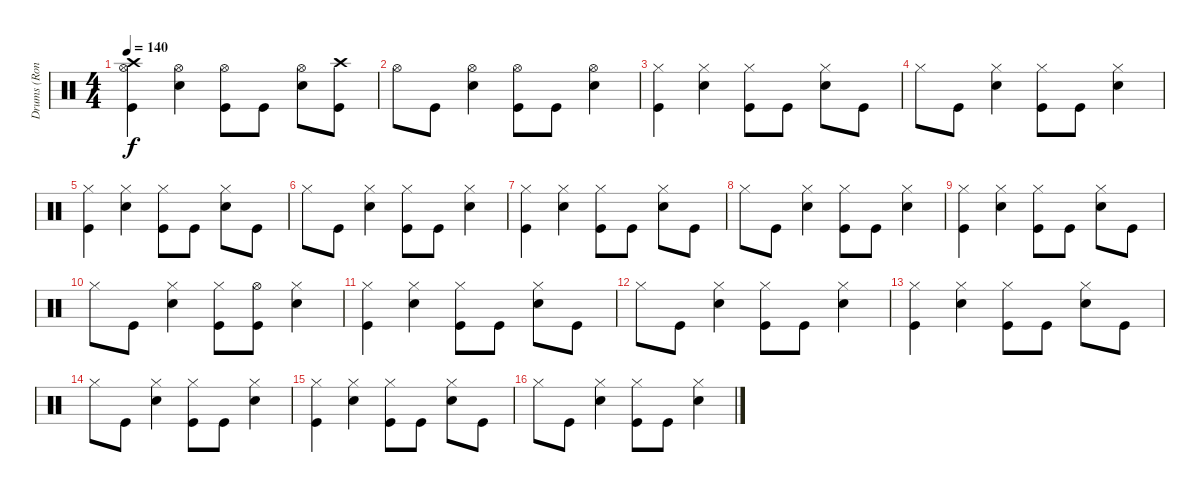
\track ("Drums (Ron Welty)" "Drums (Ron") {instrument percussion}
\staff {score}
\articulation defaults
\ts (4 4)
\tempo 140
\clef neutral
\ks c
("Kick (hit)" "Crash high (hit)" "Hi-Hat (open)").4{dy f} ("Snare (hit) 2" "Hi-Hat (open)").4 ("Kick (hit)" "Hi-Hat (open)").8 "Kick (hit)".8 ("Snare (hit) 2" "Hi-Hat (open)").8 ("Kick (hit)" "Crash high (hit)").8 |
"Hi-Hat (open)".8 "Kick (hit)".8 ("Snare (hit) 2" "Hi-Hat (open)").4 ("Kick (hit)" "Hi-Hat (open)").8 "Kick (hit)".8 ("Snare (hit) 2" "Hi-Hat (open)").4 |
("Kick (hit)" "Hi-Hat (closed)").4 ("Snare (hit) 2" "Hi-Hat (closed)").4 ("Kick (hit)" "Hi-Hat (closed)").8 "Kick (hit)".8 ("Snare (hit) 2" "Hi-Hat (closed)").8 "Kick (hit)".8 |
"Hi-Hat (closed)".8 "Kick (hit)".8 ("Snare (hit) 2" "Hi-Hat (closed)").4 ("Kick (hit)" "Hi-Hat (closed)").8 "Kick (hit)".8 ("Snare (hit) 2" "Hi-Hat (closed)").4 |
("Kick (hit)" "Hi-Hat (closed)").4 ("Snare (hit) 2" "Hi-Hat (closed)").4 ("Kick (hit)" "Hi-Hat (closed)").8 "Kick (hit)".8 ("Snare (hit) 2" "Hi-Hat (closed)").8 "Kick (hit)".8 |
"Hi-Hat (closed)".8 "Kick (hit)".8 ("Snare (hit) 2" "Hi-Hat (closed)").4 ("Kick (hit)" "Hi-Hat (closed)").8 "Kick (hit)".8 ("Snare (hit) 2" "Hi-Hat (closed)").4 |
("Kick (hit)" "Hi-Hat (closed)").4 ("Snare (hit) 2" "Hi-Hat (closed)").4 ("Kick (hit)" "Hi-Hat (closed)").8 "Kick (hit)".8 ("Snare (hit) 2" "Hi-Hat (closed)").8 "Kick (hit)".8 |
"Hi-Hat (closed)".8 "Kick (hit)".8 ("Snare (hit) 2" "Hi-Hat (closed)").4 ("Kick (hit)" "Hi-Hat (closed)").8 "Kick (hit)".8 ("Snare (hit) 2" "Hi-Hat (closed)").4 |
("Kick (hit)" "Hi-Hat (closed)").4 ("Snare (hit) 2" "Hi-Hat (closed)").4 ("Kick (hit)" "Hi-Hat (closed)").8 "Kick (hit)".8 ("Snare (hit) 2" "Hi-Hat (closed)").8 "Kick (hit)".8 |
"Hi-Hat (closed)".8 "Kick (hit)".8 ("Snare (hit) 2" "Hi-Hat (closed)").4 ("Kick (hit)" "Hi-Hat (closed)").8 ("Kick (hit)" "Hi-Hat (open)").8 ("Snare (hit) 2" "Hi-Hat (closed)").4 |
("Kick (hit)" "Hi-Hat (closed)").4 ("Snare (hit) 2" "Hi-Hat (closed)").4 ("Kick (hit)" "Hi-Hat (closed)").8 "Kick (hit)".8 ("Snare (hit) 2" "Hi-Hat (closed)").8 "Kick (hit)".8 |
"Hi-Hat (closed)".8 "Kick (hit)".8 ("Snare (hit) 2" "Hi-Hat (closed)").4 ("Kick (hit)" "Hi-Hat (closed)").8 "Kick (hit)".8 ("Snare (hit) 2" "Hi-Hat (closed)").4 |
("Kick (hit)" "Hi-Hat (closed)").4 ("Snare (hit) 2" "Hi-Hat (closed)").4 ("Kick (hit)" "Hi-Hat (closed)").8 "Kick (hit)".8 ("Snare (hit) 2" "Hi-Hat (closed)").8 "Kick (hit)".8 |
"Hi-Hat (closed)".8 "Kick (hit)".8 ("Snare (hit) 2" "Hi-Hat (closed)").4 ("Kick (hit)" "Hi-Hat (closed)").8 "Kick (hit)".8 ("Snare (hit) 2" "Hi-Hat (closed)").4 |
("Kick (hit)" "Hi-Hat (closed)").4 ("Snare (hit) 2" "Hi-Hat (closed)").4 ("Kick (hit)" "Hi-Hat (closed)").8 "Kick (hit)".8 ("Snare (hit) 2" "Hi-Hat (closed)").8 "Kick (hit)".8 |
"Hi-Hat (closed)".8 "Kick (hit)".8 ("Snare (hit) 2" "Hi-Hat (closed)").4 ("Kick (hit)" "Hi-Hat (closed)").8 "Kick (hit)".8 ("Snare (hit) 2" "Hi-Hat (closed)").4
